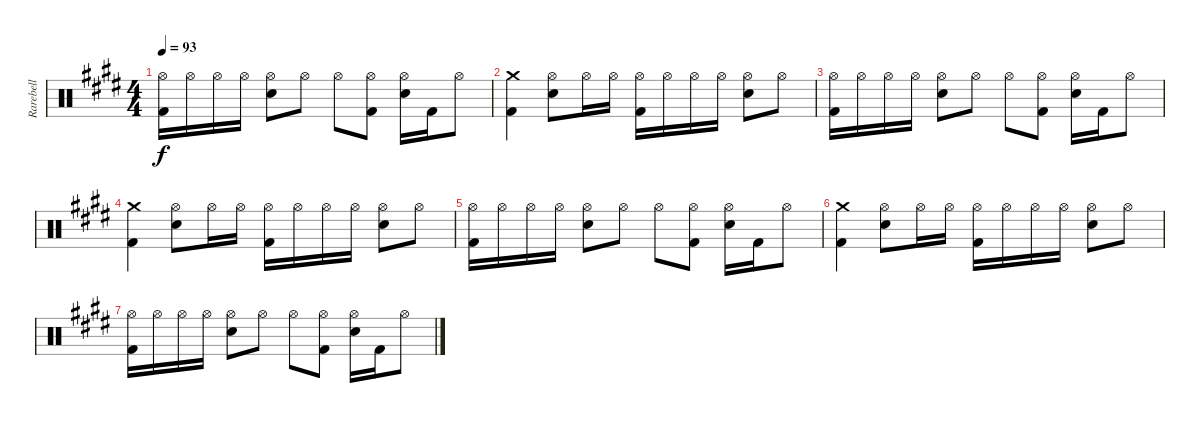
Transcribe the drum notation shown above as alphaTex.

\track ("Rarebell" "Rarebell") {instrument percussion}
\staff {score}
\articulation defaults
\ts (4 4)
\tempo 93
\clef neutral
\ks e
("Hi-Hat (open)" "Kick (hit) 2").16{dy f} "Hi-Hat (open)".16 "Hi-Hat (open)".16 "Hi-Hat (open)".16 ("Hi-Hat (open)" "Snare (hit) 2").8 "Hi-Hat (open)".8 "Hi-Hat (open)".8 ("Hi-Hat (open)" "Kick (hit) 2").8 ("Hi-Hat (open)" "Snare (hit) 2").16 "Kick (hit) 2".16 "Hi-Hat (open)".8 |
("Crash medium (hit)" "Kick (hit) 2").4 ("Hi-Hat (open)" "Snare (hit) 2").8 "Hi-Hat (open)".16 "Hi-Hat (open)".16 ("Hi-Hat (open)" "Kick (hit) 2").16 "Hi-Hat (open)".16 "Hi-Hat (open)".16 "Hi-Hat (open)".16 ("Hi-Hat (open)" "Snare (hit) 2").8 "Hi-Hat (open)".8 |
("Hi-Hat (open)" "Kick (hit) 2").16 "Hi-Hat (open)".16 "Hi-Hat (open)".16 "Hi-Hat (open)".16 ("Hi-Hat (open)" "Snare (hit) 2").8 "Hi-Hat (open)".8 "Hi-Hat (open)".8 ("Hi-Hat (open)" "Kick (hit) 2").8 ("Hi-Hat (open)" "Snare (hit) 2").16 "Kick (hit) 2".16 "Hi-Hat (open)".8 |
("Crash medium (hit)" "Kick (hit) 2").4 ("Hi-Hat (open)" "Snare (hit) 2").8 "Hi-Hat (open)".16 "Hi-Hat (open)".16 ("Hi-Hat (open)" "Kick (hit) 2").16 "Hi-Hat (open)".16 "Hi-Hat (open)".16 "Hi-Hat (open)".16 ("Hi-Hat (open)" "Snare (hit) 2").8 "Hi-Hat (open)".8 |
("Hi-Hat (open)" "Kick (hit) 2").16 "Hi-Hat (open)".16 "Hi-Hat (open)".16 "Hi-Hat (open)".16 ("Hi-Hat (open)" "Snare (hit) 2").8 "Hi-Hat (open)".8 "Hi-Hat (open)".8 ("Hi-Hat (open)" "Kick (hit) 2").8 ("Hi-Hat (open)" "Snare (hit) 2").16 "Kick (hit) 2".16 "Hi-Hat (open)".8 |
("Crash medium (hit)" "Kick (hit) 2").4 ("Hi-Hat (open)" "Snare (hit) 2").8 "Hi-Hat (open)".16 "Hi-Hat (open)".16 ("Hi-Hat (open)" "Kick (hit) 2").16 "Hi-Hat (open)".16 "Hi-Hat (open)".16 "Hi-Hat (open)".16 ("Hi-Hat (open)" "Snare (hit) 2").8 "Hi-Hat (open)".8 |
("Hi-Hat (open)" "Kick (hit) 2").16 "Hi-Hat (open)".16 "Hi-Hat (open)".16 "Hi-Hat (open)".16 ("Hi-Hat (open)" "Snare (hit) 2").8 "Hi-Hat (open)".8 "Hi-Hat (open)".8 ("Hi-Hat (open)" "Kick (hit) 2").8 ("Hi-Hat (open)" "Snare (hit) 2").16 "Kick (hit) 2".16 "Hi-Hat (open)".8
